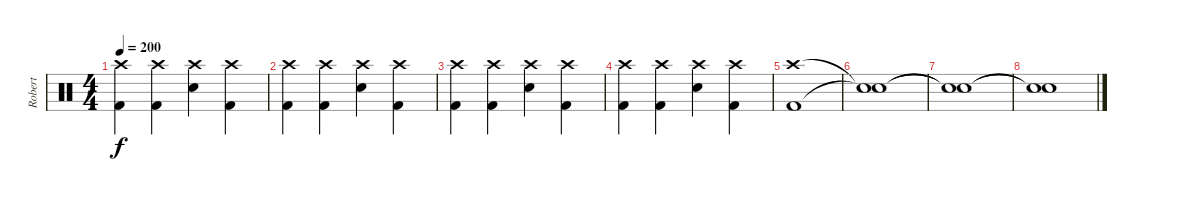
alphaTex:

\track ("Robert" "Robert") {instrument percussion}
\staff {score}
\articulation defaults
\ts (4 4)
\tempo 200
\clef neutral
\ks c
("Crash high (hit)" "Kick (hit) 2").4{dy f} ("Crash high (hit)" "Kick (hit) 2").4 ("Crash high (hit)" "Electric Snare (hit)").4 ("Crash high (hit)" "Kick (hit) 2").4 |
("Crash high (hit)" "Kick (hit) 2").4 ("Crash high (hit)" "Kick (hit) 2").4 ("Crash high (hit)" "Electric Snare (hit)").4 ("Crash high (hit)" "Kick (hit) 2").4 |
("Crash high (hit)" "Kick (hit) 2").4 ("Crash high (hit)" "Kick (hit) 2").4 ("Crash high (hit)" "Electric Snare (hit)").4 ("Crash high (hit)" "Kick (hit) 2").4 |
("Crash high (hit)" "Kick (hit) 2").4 ("Crash high (hit)" "Kick (hit) 2").4 ("Crash high (hit)" "Electric Snare (hit)").4 ("Crash high (hit)" "Kick (hit) 2").4 |
("Crash high (hit)" "Kick (hit) 2").1 |
("Snare (hit)"{t} "Snare (hit)"{t}).1 |
("Snare (hit)"{t} "Snare (hit)"{t}).1 |
("Snare (hit)"{t} "Snare (hit)"{t}).1
